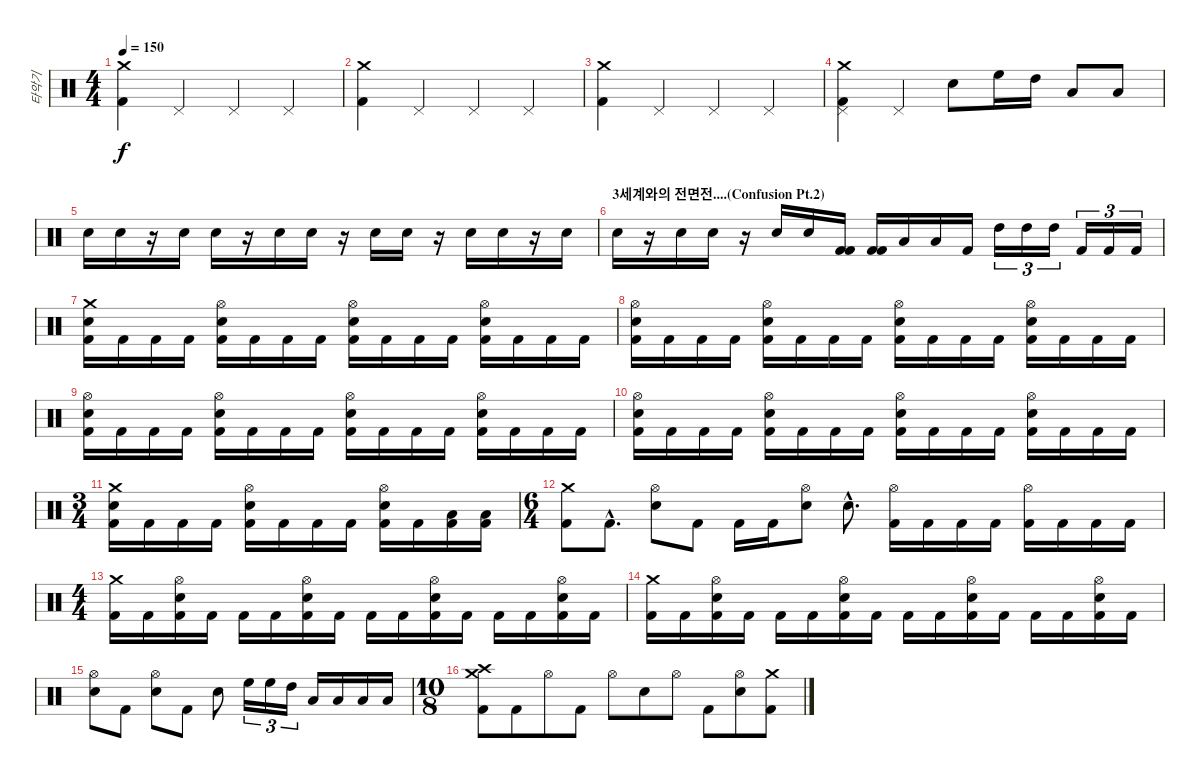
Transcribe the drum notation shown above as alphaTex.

\track ("타악기" "타악기") {instrument percussion}
\staff {score}
\articulation defaults
\ts (4 4)
\tempo 150
\clef neutral
\ks c
("Crash medium (hit)" "Kick (hit) 2").4{dy f} "Pedal Hi-Hat (hit)".4 "Pedal Hi-Hat (hit)".4 "Pedal Hi-Hat (hit)".4 |
("Kick (hit) 2" "Crash medium (hit)").4 "Pedal Hi-Hat (hit)".4 "Pedal Hi-Hat (hit)".4 "Pedal Hi-Hat (hit)".4 |
("Crash medium (hit)" "Kick (hit) 2").4 "Pedal Hi-Hat (hit)".4 "Pedal Hi-Hat (hit)".4 "Pedal Hi-Hat (hit)".4 |
("Crash medium (hit)" "Kick (hit) 2" "Pedal Hi-Hat (hit)").4 "Pedal Hi-Hat (hit)".4 "Snare (hit) 2".8 "High Floor Tom (hit)".16 "High Tom (hit)".16 "Low Tom (hit)".8 "Low Tom (hit)".8 |
"Snare (hit) 2".16 "Snare (hit) 2".16 r.16 "Snare (hit) 2".16 "Snare (hit) 2".16 r.16 "Snare (hit) 2".16 "Snare (hit) 2".16 r.16 "Snare (hit) 2".16 "Snare (hit) 2".16 r.16 "Snare (hit) 2".16 "Snare (hit) 2".16 r.16 "Snare (hit) 2".16 |
\section ("" "3세계와의 전면전....(Confusion Pt.2)")
"Snare (hit) 2".16 r.16 "Snare (hit) 2".16 "Snare (hit) 2".16 r.16 "Snare (hit) 2".16 "Snare (hit) 2".16 ("Kick (hit) 2" "Kick (hit) 2").16 ("Kick (hit) 2" "Kick (hit) 2").16 "Low Tom (hit)".16 "Low Tom (hit)".16 "Kick (hit) 2".16 "High Tom (hit)".16{tu (3 2)} "High Tom (hit)".16{tu (3 2)} "High Tom (hit)".16{tu (3 2)} "Kick (hit) 2".16{tu (3 2)} "Kick (hit) 2".16{tu (3 2)} "Kick (hit) 2".16{tu (3 2)} |
("Snare (hit) 2" "Kick (hit) 2" "Crash medium (hit)").16 "Kick (hit) 2".16 "Kick (hit) 2".16 "Kick (hit) 2".16 ("Snare (hit) 2" "Kick (hit) 2" "Hi-Hat (open)").16 "Kick (hit) 2".16 "Kick (hit) 2".16 "Kick (hit) 2".16 ("Hi-Hat (open)" "Kick (hit) 2" "Snare (hit) 2").16 "Kick (hit) 2".16 "Kick (hit) 2".16 "Kick (hit) 2".16 ("Hi-Hat (open)" "Kick (hit) 2" "Snare (hit) 2").16 "Kick (hit) 2".16 "Kick (hit) 2".16 "Kick (hit) 2".16 |
("Hi-Hat (open)" "Snare (hit) 2" "Kick (hit) 2").16 "Kick (hit) 2".16 "Kick (hit) 2".16 "Kick (hit) 2".16 ("Snare (hit) 2" "Kick (hit) 2" "Hi-Hat (open)").16 "Kick (hit) 2".16 "Kick (hit) 2".16 "Kick (hit) 2".16 ("Hi-Hat (open)" "Kick (hit) 2" "Snare (hit) 2").16 "Kick (hit) 2".16 "Kick (hit) 2".16 "Kick (hit) 2".16 ("Hi-Hat (open)" "Kick (hit) 2" "Snare (hit) 2").16 "Kick (hit) 2".16 "Kick (hit) 2".16 "Kick (hit) 2".16 |
("Hi-Hat (open)" "Snare (hit) 2" "Kick (hit) 2").16 "Kick (hit) 2".16 "Kick (hit) 2".16 "Kick (hit) 2".16 ("Snare (hit) 2" "Kick (hit) 2" "Hi-Hat (open)").16 "Kick (hit) 2".16 "Kick (hit) 2".16 "Kick (hit) 2".16 ("Hi-Hat (open)" "Kick (hit) 2" "Snare (hit) 2").16 "Kick (hit) 2".16 "Kick (hit) 2".16 "Kick (hit) 2".16 ("Hi-Hat (open)" "Kick (hit) 2" "Snare (hit) 2").16 "Kick (hit) 2".16 "Kick (hit) 2".16 "Kick (hit) 2".16 |
("Hi-Hat (open)" "Snare (hit) 2" "Kick (hit) 2").16 "Kick (hit) 2".16 "Kick (hit) 2".16 "Kick (hit) 2".16 ("Snare (hit) 2" "Kick (hit) 2" "Hi-Hat (open)").16 "Kick (hit) 2".16 "Kick (hit) 2".16 "Kick (hit) 2".16 ("Hi-Hat (open)" "Kick (hit) 2" "Snare (hit) 2").16 "Kick (hit) 2".16 "Kick (hit) 2".16 "Kick (hit) 2".16 ("Hi-Hat (open)" "Kick (hit) 2" "Snare (hit) 2").16 "Kick (hit) 2".16 "Kick (hit) 2".16 "Kick (hit) 2".16 |
\ts (3 4)
("Snare (hit) 2" "Kick (hit) 2" "Crash medium (hit)").16 "Kick (hit) 2".16 "Kick (hit) 2".16 "Kick (hit) 2".16 ("Snare (hit) 2" "Kick (hit) 2" "Hi-Hat (open)").16 "Kick (hit) 2".16 "Kick (hit) 2".16 "Kick (hit) 2".16 ("Hi-Hat (open)" "Snare (hit) 2" "Kick (hit) 2").16 "Kick (hit) 2".16 ("Low Floor Tom (hit)" "Kick (hit) 2").16 ("Low Floor Tom (hit)" "Kick (hit) 2").16 |
\ts (6 4)
("Kick (hit) 2" "Crash medium (hit)").8 "Kick (hit) 2"{hac}.8{d} ("Hi-Hat (open)" "Snare (hit) 2").8 "Kick (hit) 2".8 "Kick (hit) 2".16 "Kick (hit) 2".16 ("Snare (hit) 2" "Hi-Hat (open)").8 "Snare (hit) 2"{hac}.8{d} ("Hi-Hat (open)" "Kick (hit) 2").16 "Kick (hit) 2".16 "Kick (hit) 2".16 "Kick (hit) 2".16 ("Hi-Hat (open)" "Kick (hit) 2").16 "Kick (hit) 2".16 "Kick (hit) 2".16 "Kick (hit) 2".16 |
\ts (4 4)
("Kick (hit) 2" "Crash medium (hit)").16 "Kick (hit) 2".16 ("Hi-Hat (open)" "Snare (hit) 2" "Kick (hit) 2").16 "Kick (hit) 2".16 "Kick (hit) 2".16 "Kick (hit) 2".16 ("Hi-Hat (open)" "Kick (hit) 2" "Snare (hit) 2").16 "Kick (hit) 2".16 "Kick (hit) 2".16 "Kick (hit) 2".16 ("Hi-Hat (open)" "Kick (hit) 2" "Snare (hit) 2").16 "Kick (hit) 2".16 "Kick (hit) 2".16 "Kick (hit) 2".16 ("Kick (hit) 2" "Snare (hit) 2" "Hi-Hat (open)").16 "Kick (hit) 2".16 |
("Kick (hit) 2" "Crash medium (hit)").16 "Kick (hit) 2".16 ("Hi-Hat (open)" "Snare (hit) 2" "Kick (hit) 2").16 "Kick (hit) 2".16 "Kick (hit) 2".16 "Kick (hit) 2".16 ("Hi-Hat (open)" "Kick (hit) 2" "Snare (hit) 2").16 "Kick (hit) 2".16 "Kick (hit) 2".16 "Kick (hit) 2".16 ("Hi-Hat (open)" "Kick (hit) 2" "Snare (hit) 2").16 "Kick (hit) 2".16 "Kick (hit) 2".16 "Kick (hit) 2".16 ("Kick (hit) 2" "Snare (hit) 2" "Hi-Hat (open)").16 "Kick (hit) 2".16 |
("Snare (hit) 2" "Hi-Hat (open)").8 "Kick (hit) 2".8 ("Snare (hit) 2" "Hi-Hat (open)").8 "Kick (hit) 2".8 "Snare (hit) 2".8 "High Floor Tom (hit)".16{tu (3 2)} "High Floor Tom (hit)".16{tu (3 2)} "High Tom (hit)".16{tu (3 2)} "Low Tom (hit)".16 "Low Tom (hit)".16 "Low Floor Tom (hit)".16 "Low Floor Tom (hit)".16 |
\ts (10 8)
("Crash medium (hit)" "Crash high (hit)" "Kick (hit) 2").8 "Kick (hit) 2".8 "Hi-Hat (open)".8 "Kick (hit) 2".8 "Hi-Hat (open)".8 "Snare (hit) 2".8 "Hi-Hat (open)".8 "Kick (hit) 2".8 ("Hi-Hat (open)" "Snare (hit) 2").8 ("Crash medium (hit)" "Kick (hit) 2").8
